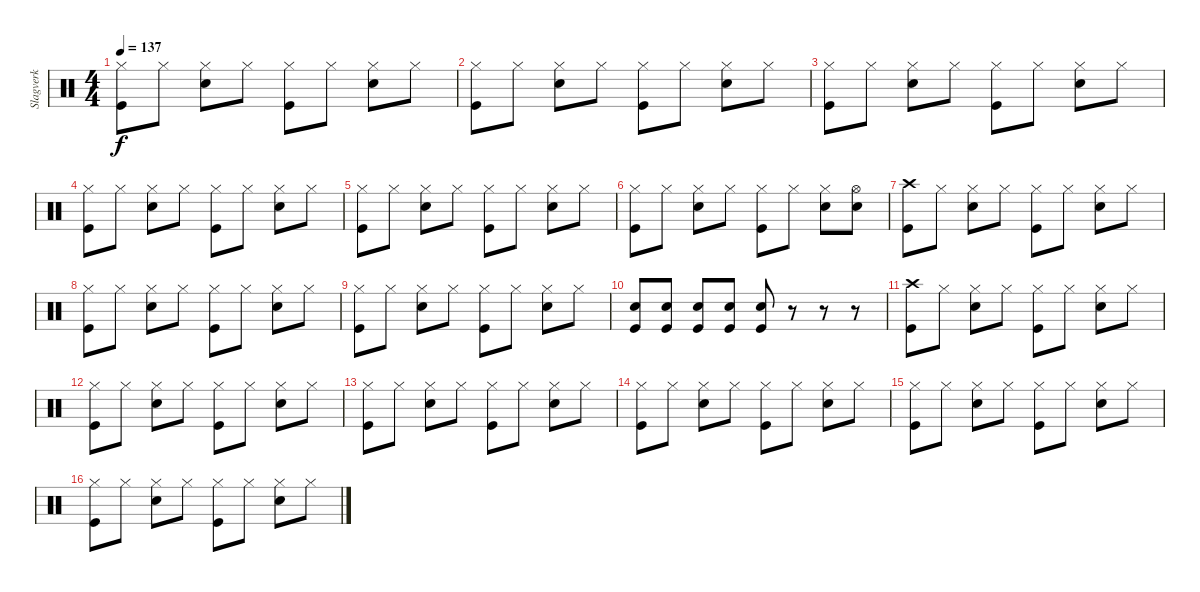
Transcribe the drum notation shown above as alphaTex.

\track ("Slagverk" "Slagverk") {instrument percussion}
\staff {score}
\articulation defaults
\ts (4 4)
\tempo 137
\clef neutral
\ks c
("Hi-Hat (closed)" "Kick (hit)").8{dy f} "Hi-Hat (closed)".8 ("Hi-Hat (closed)" "Snare (hit) 2").8 "Hi-Hat (closed)".8 ("Hi-Hat (closed)" "Kick (hit)").8 "Hi-Hat (closed)".8 ("Hi-Hat (closed)" "Snare (hit) 2").8 "Hi-Hat (closed)".8 |
("Hi-Hat (closed)" "Kick (hit)").8 "Hi-Hat (closed)".8 ("Hi-Hat (closed)" "Snare (hit) 2").8 "Hi-Hat (closed)".8 ("Hi-Hat (closed)" "Kick (hit)").8 "Hi-Hat (closed)".8 ("Hi-Hat (closed)" "Snare (hit) 2").8 "Hi-Hat (closed)".8 |
("Hi-Hat (closed)" "Kick (hit)").8 "Hi-Hat (closed)".8 ("Hi-Hat (closed)" "Snare (hit) 2").8 "Hi-Hat (closed)".8 ("Hi-Hat (closed)" "Kick (hit)").8 "Hi-Hat (closed)".8 ("Hi-Hat (closed)" "Snare (hit) 2").8 "Hi-Hat (closed)".8 |
("Hi-Hat (closed)" "Kick (hit)").8 "Hi-Hat (closed)".8 ("Hi-Hat (closed)" "Snare (hit) 2").8 "Hi-Hat (closed)".8 ("Hi-Hat (closed)" "Kick (hit)").8 "Hi-Hat (closed)".8 ("Hi-Hat (closed)" "Snare (hit) 2").8 "Hi-Hat (closed)".8 |
("Hi-Hat (closed)" "Kick (hit)").8 "Hi-Hat (closed)".8 ("Hi-Hat (closed)" "Snare (hit) 2").8 "Hi-Hat (closed)".8 ("Hi-Hat (closed)" "Kick (hit)").8 "Hi-Hat (closed)".8 ("Hi-Hat (closed)" "Snare (hit) 2").8 "Hi-Hat (closed)".8 |
("Hi-Hat (closed)" "Kick (hit)").8 "Hi-Hat (closed)".8 ("Hi-Hat (closed)" "Snare (hit) 2").8 "Hi-Hat (closed)".8 ("Hi-Hat (closed)" "Kick (hit)").8 "Hi-Hat (closed)".8 ("Hi-Hat (closed)" "Snare (hit) 2").8 ("Hi-Hat (open)" "Snare (hit) 2").8 |
("Crash high (hit)" "Kick (hit)").8 "Hi-Hat (closed)".8 ("Hi-Hat (closed)" "Snare (hit) 2").8 "Hi-Hat (closed)".8 ("Hi-Hat (closed)" "Kick (hit)").8 "Hi-Hat (closed)".8 ("Hi-Hat (closed)" "Snare (hit) 2").8 "Hi-Hat (closed)".8 |
("Hi-Hat (closed)" "Kick (hit)").8 "Hi-Hat (closed)".8 ("Hi-Hat (closed)" "Snare (hit) 2").8 "Hi-Hat (closed)".8 ("Hi-Hat (closed)" "Kick (hit)").8 "Hi-Hat (closed)".8 ("Hi-Hat (closed)" "Snare (hit) 2").8 "Hi-Hat (closed)".8 |
("Hi-Hat (closed)" "Kick (hit)").8 "Hi-Hat (closed)".8 ("Hi-Hat (closed)" "Snare (hit) 2").8 "Hi-Hat (closed)".8 ("Hi-Hat (closed)" "Kick (hit)").8 "Hi-Hat (closed)".8 ("Hi-Hat (closed)" "Snare (hit) 2").8 "Hi-Hat (closed)".8 |
("Kick (hit)" "Snare (hit) 2").8 ("Kick (hit)" "Snare (hit) 2").8 ("Kick (hit)" "Snare (hit) 2").8 ("Kick (hit)" "Snare (hit) 2").8 ("Kick (hit)" "Snare (hit) 2").8 r.8 r.8 r.8 |
("Crash high (hit)" "Kick (hit)").8 "Hi-Hat (closed)".8 ("Hi-Hat (closed)" "Snare (hit) 2").8 "Hi-Hat (closed)".8 ("Hi-Hat (closed)" "Kick (hit)").8 "Hi-Hat (closed)".8 ("Hi-Hat (closed)" "Snare (hit) 2").8 "Hi-Hat (closed)".8 |
("Hi-Hat (closed)" "Kick (hit)").8 "Hi-Hat (closed)".8 ("Hi-Hat (closed)" "Snare (hit) 2").8 "Hi-Hat (closed)".8 ("Hi-Hat (closed)" "Kick (hit)").8 "Hi-Hat (closed)".8 ("Hi-Hat (closed)" "Snare (hit) 2").8 "Hi-Hat (closed)".8 |
("Hi-Hat (closed)" "Kick (hit)").8 "Hi-Hat (closed)".8 ("Hi-Hat (closed)" "Snare (hit) 2").8 "Hi-Hat (closed)".8 ("Hi-Hat (closed)" "Kick (hit)").8 "Hi-Hat (closed)".8 ("Hi-Hat (closed)" "Snare (hit) 2").8 "Hi-Hat (closed)".8 |
("Hi-Hat (closed)" "Kick (hit)").8 "Hi-Hat (closed)".8 ("Hi-Hat (closed)" "Snare (hit) 2").8 "Hi-Hat (closed)".8 ("Hi-Hat (closed)" "Kick (hit)").8 "Hi-Hat (closed)".8 ("Hi-Hat (closed)" "Snare (hit) 2").8 "Hi-Hat (closed)".8 |
("Hi-Hat (closed)" "Kick (hit)").8 "Hi-Hat (closed)".8 ("Hi-Hat (closed)" "Snare (hit) 2").8 "Hi-Hat (closed)".8 ("Hi-Hat (closed)" "Kick (hit)").8 "Hi-Hat (closed)".8 ("Hi-Hat (closed)" "Snare (hit) 2").8 "Hi-Hat (closed)".8 |
("Hi-Hat (closed)" "Kick (hit)").8 "Hi-Hat (closed)".8 ("Hi-Hat (closed)" "Snare (hit) 2").8 "Hi-Hat (closed)".8 ("Hi-Hat (closed)" "Kick (hit)").8 "Hi-Hat (closed)".8 ("Hi-Hat (closed)" "Snare (hit) 2").8 "Hi-Hat (closed)".8
